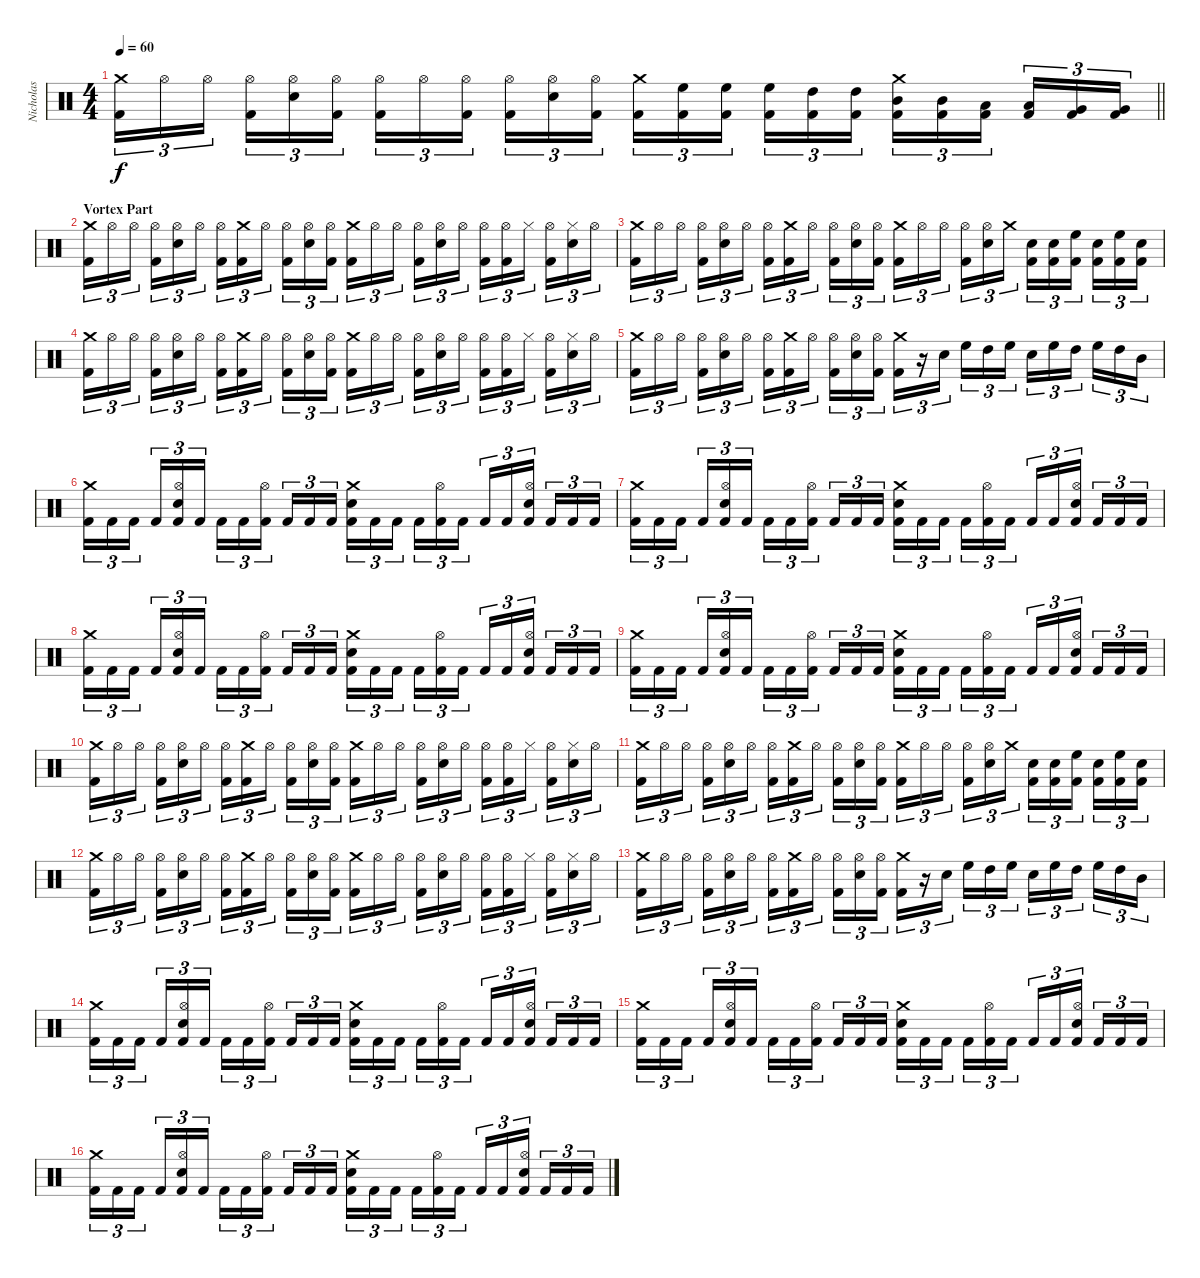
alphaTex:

\track ("Nicholas" "Nicholas") {instrument percussion}
\staff {score}
\articulation defaults
\ts (4 4)
\tempo 60
\clef neutral
\barLineRight lightlight
\ks c
("Crash medium (hit)" "Kick (hit) 2").16{tu (3 2) dy f} "Hi-Hat (open)".16{tu (3 2)} "Hi-Hat (open)".16{tu (3 2) beam splitsecondary} ("Hi-Hat (open)" "Kick (hit) 2").16{tu (3 2)} ("Hi-Hat (open)" "Snare (hit) 2").16{tu (3 2)} ("Hi-Hat (open)" "Kick (hit) 2").16{tu (3 2)} ("Hi-Hat (open)" "Kick (hit) 2").16{tu (3 2)} "Hi-Hat (open)".16{tu (3 2)} ("Hi-Hat (open)" "Kick (hit) 2").16{tu (3 2) beam splitsecondary} ("Hi-Hat (open)" "Kick (hit) 2").16{tu (3 2)} ("Hi-Hat (open)" "Snare (hit) 2").16{tu (3 2)} ("Hi-Hat (open)" "Kick (hit) 2").16{tu (3 2)} ("Crash medium (hit)" "Kick (hit) 2").16{tu (3 2)} ("High Floor Tom (hit)" "Kick (hit) 2").16{tu (3 2)} ("High Floor Tom (hit)" "Kick (hit) 2").16{tu (3 2) beam splitsecondary} ("High Floor Tom (hit)" "Kick (hit) 2").16{tu (3 2)} ("High Tom (hit)" "Kick (hit) 2").16{tu (3 2)} ("High Tom (hit)" "Kick (hit) 2").16{tu (3 2)} ("Crash medium (hit)" "Mid Tom (hit)" "Kick (hit) 2").16{tu (3 2)} ("Mid Tom (hit)" "Kick (hit) 2").16{tu (3 2)} ("Low Tom (hit)" "Kick (hit) 2").16{tu (3 2) beam splitsecondary} ("Low Tom (hit)" "Kick (hit) 2").16{tu (3 2)} ("Very Low Tom (hit)" "Kick (hit) 2").16{tu (3 2)} ("Very Low Tom (hit)" "Kick (hit) 2").16{tu (3 2)} |
\section ("" "Vortex Part")
("Crash medium (hit)" "Kick (hit) 2").16{tu (3 2)} "Hi-Hat (open)".16{tu (3 2)} "Hi-Hat (open)".16{tu (3 2) beam splitsecondary} ("Hi-Hat (open)" "Kick (hit) 2").16{tu (3 2)} ("Hi-Hat (open)" "Snare (hit) 2").16{tu (3 2)} "Hi-Hat (open)".16{tu (3 2)} ("Hi-Hat (open)" "Kick (hit) 2").16{tu (3 2)} ("Crash medium (hit)" "Kick (hit) 2").16{tu (3 2)} "Hi-Hat (open)".16{tu (3 2) beam splitsecondary} ("Hi-Hat (open)" "Kick (hit) 2").16{tu (3 2)} ("Hi-Hat (open)" "Snare (hit) 2").16{tu (3 2)} ("Hi-Hat (open)" "Kick (hit) 2").16{tu (3 2)} ("Crash medium (hit)" "Kick (hit) 2").16{tu (3 2)} "Hi-Hat (open)".16{tu (3 2)} "Hi-Hat (open)".16{tu (3 2) beam splitsecondary} ("Hi-Hat (open)" "Kick (hit) 2").16{tu (3 2)} ("Hi-Hat (open)" "Snare (hit) 2").16{tu (3 2)} "Hi-Hat (open)".16{tu (3 2)} ("Hi-Hat (open)" "Kick (hit) 2").16{tu (3 2)} ("Hi-Hat (open)" "Kick (hit) 2").16{tu (3 2)} "Hi-Hat (closed)".16{tu (3 2) beam splitsecondary} ("Hi-Hat (open)" "Kick (hit) 2").16{tu (3 2)} ("Hi-Hat (closed)" "Snare (hit) 2").16{tu (3 2)} "Hi-Hat (open)".16{tu (3 2)} |
("Crash medium (hit)" "Kick (hit) 2").16{tu (3 2)} "Hi-Hat (open)".16{tu (3 2)} "Hi-Hat (open)".16{tu (3 2) beam splitsecondary} ("Hi-Hat (open)" "Kick (hit) 2").16{tu (3 2)} ("Hi-Hat (open)" "Snare (hit) 2").16{tu (3 2)} "Hi-Hat (open)".16{tu (3 2)} ("Hi-Hat (open)" "Kick (hit) 2").16{tu (3 2)} ("Crash medium (hit)" "Kick (hit) 2").16{tu (3 2)} "Hi-Hat (open)".16{tu (3 2) beam splitsecondary} ("Hi-Hat (open)" "Kick (hit) 2").16{tu (3 2)} ("Hi-Hat (open)" "Snare (hit) 2").16{tu (3 2)} ("Hi-Hat (open)" "Kick (hit) 2").16{tu (3 2)} ("Crash medium (hit)" "Kick (hit) 2").16{tu (3 2)} "Hi-Hat (open)".16{tu (3 2)} "Hi-Hat (open)".16{tu (3 2) beam splitsecondary} ("Hi-Hat (open)" "Kick (hit) 2").16{tu (3 2)} ("Hi-Hat (open)" "Snare (hit) 2").16{tu (3 2)} "Crash medium (hit)".16{tu (3 2)} ("Snare (hit) 2" "Kick (hit) 2").16{tu (3 2)} ("Snare (hit) 2" "Kick (hit) 2").16{tu (3 2)} ("High Floor Tom (hit)" "Kick (hit) 2").16{tu (3 2) beam splitsecondary} ("Snare (hit) 2" "Kick (hit) 2").16{tu (3 2)} ("High Floor Tom (hit)" "Kick (hit) 2").16{tu (3 2)} ("Snare (hit) 2" "Kick (hit) 2").16{tu (3 2)} |
("Crash medium (hit)" "Kick (hit) 2").16{tu (3 2)} "Hi-Hat (open)".16{tu (3 2)} "Hi-Hat (open)".16{tu (3 2) beam splitsecondary} ("Hi-Hat (open)" "Kick (hit) 2").16{tu (3 2)} ("Hi-Hat (open)" "Snare (hit) 2").16{tu (3 2)} "Hi-Hat (open)".16{tu (3 2)} ("Hi-Hat (open)" "Kick (hit) 2").16{tu (3 2)} ("Crash medium (hit)" "Kick (hit) 2").16{tu (3 2)} "Hi-Hat (open)".16{tu (3 2) beam splitsecondary} ("Hi-Hat (open)" "Kick (hit) 2").16{tu (3 2)} ("Hi-Hat (open)" "Snare (hit) 2").16{tu (3 2)} ("Hi-Hat (open)" "Kick (hit) 2").16{tu (3 2)} ("Crash medium (hit)" "Kick (hit) 2").16{tu (3 2)} "Hi-Hat (open)".16{tu (3 2)} "Hi-Hat (open)".16{tu (3 2) beam splitsecondary} ("Hi-Hat (open)" "Kick (hit) 2").16{tu (3 2)} ("Hi-Hat (open)" "Snare (hit) 2").16{tu (3 2)} "Hi-Hat (open)".16{tu (3 2)} ("Hi-Hat (open)" "Kick (hit) 2").16{tu (3 2)} ("Hi-Hat (open)" "Kick (hit) 2").16{tu (3 2)} "Hi-Hat (closed)".16{tu (3 2) beam splitsecondary} ("Hi-Hat (open)" "Kick (hit) 2").16{tu (3 2)} ("Hi-Hat (closed)" "Snare (hit) 2").16{tu (3 2)} "Hi-Hat (open)".16{tu (3 2)} |
("Crash medium (hit)" "Kick (hit) 2").16{tu (3 2)} "Hi-Hat (open)".16{tu (3 2)} "Hi-Hat (open)".16{tu (3 2) beam splitsecondary} ("Hi-Hat (open)" "Kick (hit) 2").16{tu (3 2)} ("Hi-Hat (open)" "Snare (hit) 2").16{tu (3 2)} "Hi-Hat (open)".16{tu (3 2)} ("Hi-Hat (open)" "Kick (hit) 2").16{tu (3 2)} ("Crash medium (hit)" "Kick (hit) 2").16{tu (3 2)} "Hi-Hat (open)".16{tu (3 2) beam splitsecondary} ("Hi-Hat (open)" "Kick (hit) 2").16{tu (3 2)} ("Hi-Hat (open)" "Snare (hit) 2").16{tu (3 2)} ("Hi-Hat (open)" "Kick (hit) 2").16{tu (3 2)} ("Crash medium (hit)" "Kick (hit) 2").16{tu (3 2)} r.16{tu (3 2)} "Snare (hit) 2".16{tu (3 2) beam splitsecondary} "High Floor Tom (hit)".16{tu (3 2)} "High Tom (hit)".16{tu (3 2)} "High Floor Tom (hit)".16{tu (3 2)} "Snare (hit) 2".16{tu (3 2)} "High Floor Tom (hit)".16{tu (3 2)} "High Tom (hit)".16{tu (3 2) beam splitsecondary} "High Floor Tom (hit)".16{tu (3 2)} "High Tom (hit)".16{tu (3 2)} "Mid Tom (hit)".16{tu (3 2)} |
("Crash medium (hit)" "Kick (hit) 2").16{tu (3 2)} "Kick (hit) 2".16{tu (3 2)} "Kick (hit) 2".16{tu (3 2) beam splitsecondary} "Kick (hit) 2".16{tu (3 2)} ("Hi-Hat (open)" "Snare (hit) 2" "Kick (hit) 2").16{tu (3 2)} "Kick (hit) 2".16{tu (3 2)} "Kick (hit) 2".16{tu (3 2)} "Kick (hit) 2".16{tu (3 2)} ("Hi-Hat (open)" "Kick (hit) 2").16{tu (3 2) beam splitsecondary} "Kick (hit) 2".16{tu (3 2)} "Kick (hit) 2".16{tu (3 2)} "Kick (hit) 2".16{tu (3 2)} ("Crash medium (hit)" "Snare (hit) 2" "Kick (hit) 2").16{tu (3 2)} "Kick (hit) 2".16{tu (3 2)} "Kick (hit) 2".16{tu (3 2) beam splitsecondary} "Kick (hit) 2".16{tu (3 2)} ("Hi-Hat (open)" "Kick (hit) 2").16{tu (3 2)} "Kick (hit) 2".16{tu (3 2)} "Kick (hit) 2".16{tu (3 2)} "Kick (hit) 2".16{tu (3 2)} ("Hi-Hat (open)" "Snare (hit) 2" "Kick (hit) 2").16{tu (3 2) beam splitsecondary} "Kick (hit) 2".16{tu (3 2)} "Kick (hit) 2".16{tu (3 2)} "Kick (hit) 2".16{tu (3 2)} |
("Crash medium (hit)" "Kick (hit) 2").16{tu (3 2)} "Kick (hit) 2".16{tu (3 2)} "Kick (hit) 2".16{tu (3 2) beam splitsecondary} "Kick (hit) 2".16{tu (3 2)} ("Hi-Hat (open)" "Snare (hit) 2" "Kick (hit) 2").16{tu (3 2)} "Kick (hit) 2".16{tu (3 2)} "Kick (hit) 2".16{tu (3 2)} "Kick (hit) 2".16{tu (3 2)} ("Hi-Hat (open)" "Kick (hit) 2").16{tu (3 2) beam splitsecondary} "Kick (hit) 2".16{tu (3 2)} "Kick (hit) 2".16{tu (3 2)} "Kick (hit) 2".16{tu (3 2)} ("Crash medium (hit)" "Snare (hit) 2" "Kick (hit) 2").16{tu (3 2)} "Kick (hit) 2".16{tu (3 2)} "Kick (hit) 2".16{tu (3 2) beam splitsecondary} "Kick (hit) 2".16{tu (3 2)} ("Hi-Hat (open)" "Kick (hit) 2").16{tu (3 2)} "Kick (hit) 2".16{tu (3 2)} "Kick (hit) 2".16{tu (3 2)} "Kick (hit) 2".16{tu (3 2)} ("Hi-Hat (open)" "Snare (hit) 2" "Kick (hit) 2").16{tu (3 2) beam splitsecondary} "Kick (hit) 2".16{tu (3 2)} "Kick (hit) 2".16{tu (3 2)} "Kick (hit) 2".16{tu (3 2)} |
("Crash medium (hit)" "Kick (hit) 2").16{tu (3 2)} "Kick (hit) 2".16{tu (3 2)} "Kick (hit) 2".16{tu (3 2) beam splitsecondary} "Kick (hit) 2".16{tu (3 2)} ("Hi-Hat (open)" "Snare (hit) 2" "Kick (hit) 2").16{tu (3 2)} "Kick (hit) 2".16{tu (3 2)} "Kick (hit) 2".16{tu (3 2)} "Kick (hit) 2".16{tu (3 2)} ("Hi-Hat (open)" "Kick (hit) 2").16{tu (3 2) beam splitsecondary} "Kick (hit) 2".16{tu (3 2)} "Kick (hit) 2".16{tu (3 2)} "Kick (hit) 2".16{tu (3 2)} ("Crash medium (hit)" "Snare (hit) 2" "Kick (hit) 2").16{tu (3 2)} "Kick (hit) 2".16{tu (3 2)} "Kick (hit) 2".16{tu (3 2) beam splitsecondary} "Kick (hit) 2".16{tu (3 2)} ("Hi-Hat (open)" "Kick (hit) 2").16{tu (3 2)} "Kick (hit) 2".16{tu (3 2)} "Kick (hit) 2".16{tu (3 2)} "Kick (hit) 2".16{tu (3 2)} ("Hi-Hat (open)" "Snare (hit) 2" "Kick (hit) 2").16{tu (3 2) beam splitsecondary} "Kick (hit) 2".16{tu (3 2)} "Kick (hit) 2".16{tu (3 2)} "Kick (hit) 2".16{tu (3 2)} |
("Crash medium (hit)" "Kick (hit) 2").16{tu (3 2)} "Kick (hit) 2".16{tu (3 2)} "Kick (hit) 2".16{tu (3 2) beam splitsecondary} "Kick (hit) 2".16{tu (3 2)} ("Hi-Hat (open)" "Snare (hit) 2" "Kick (hit) 2").16{tu (3 2)} "Kick (hit) 2".16{tu (3 2)} "Kick (hit) 2".16{tu (3 2)} "Kick (hit) 2".16{tu (3 2)} ("Hi-Hat (open)" "Kick (hit) 2").16{tu (3 2) beam splitsecondary} "Kick (hit) 2".16{tu (3 2)} "Kick (hit) 2".16{tu (3 2)} "Kick (hit) 2".16{tu (3 2)} ("Crash medium (hit)" "Snare (hit) 2" "Kick (hit) 2").16{tu (3 2)} "Kick (hit) 2".16{tu (3 2)} "Kick (hit) 2".16{tu (3 2) beam splitsecondary} "Kick (hit) 2".16{tu (3 2)} ("Hi-Hat (open)" "Kick (hit) 2").16{tu (3 2)} "Kick (hit) 2".16{tu (3 2)} "Kick (hit) 2".16{tu (3 2)} "Kick (hit) 2".16{tu (3 2)} ("Hi-Hat (open)" "Snare (hit) 2" "Kick (hit) 2").16{tu (3 2) beam splitsecondary} "Kick (hit) 2".16{tu (3 2)} "Kick (hit) 2".16{tu (3 2)} "Kick (hit) 2".16{tu (3 2)} |
("Crash medium (hit)" "Kick (hit) 2").16{tu (3 2)} "Hi-Hat (open)".16{tu (3 2)} "Hi-Hat (open)".16{tu (3 2) beam splitsecondary} ("Hi-Hat (open)" "Kick (hit) 2").16{tu (3 2)} ("Hi-Hat (open)" "Snare (hit) 2").16{tu (3 2)} "Hi-Hat (open)".16{tu (3 2)} ("Hi-Hat (open)" "Kick (hit) 2").16{tu (3 2)} ("Crash medium (hit)" "Kick (hit) 2").16{tu (3 2)} "Hi-Hat (open)".16{tu (3 2) beam splitsecondary} ("Hi-Hat (open)" "Kick (hit) 2").16{tu (3 2)} ("Hi-Hat (open)" "Snare (hit) 2").16{tu (3 2)} ("Hi-Hat (open)" "Kick (hit) 2").16{tu (3 2)} ("Crash medium (hit)" "Kick (hit) 2").16{tu (3 2)} "Hi-Hat (open)".16{tu (3 2)} "Hi-Hat (open)".16{tu (3 2) beam splitsecondary} ("Hi-Hat (open)" "Kick (hit) 2").16{tu (3 2)} ("Hi-Hat (open)" "Snare (hit) 2").16{tu (3 2)} "Hi-Hat (open)".16{tu (3 2)} ("Hi-Hat (open)" "Kick (hit) 2").16{tu (3 2)} ("Hi-Hat (open)" "Kick (hit) 2").16{tu (3 2)} "Hi-Hat (closed)".16{tu (3 2) beam splitsecondary} ("Hi-Hat (open)" "Kick (hit) 2").16{tu (3 2)} ("Hi-Hat (closed)" "Snare (hit) 2").16{tu (3 2)} "Hi-Hat (open)".16{tu (3 2)} |
("Crash medium (hit)" "Kick (hit) 2").16{tu (3 2)} "Hi-Hat (open)".16{tu (3 2)} "Hi-Hat (open)".16{tu (3 2) beam splitsecondary} ("Hi-Hat (open)" "Kick (hit) 2").16{tu (3 2)} ("Hi-Hat (open)" "Snare (hit) 2").16{tu (3 2)} "Hi-Hat (open)".16{tu (3 2)} ("Hi-Hat (open)" "Kick (hit) 2").16{tu (3 2)} ("Crash medium (hit)" "Kick (hit) 2").16{tu (3 2)} "Hi-Hat (open)".16{tu (3 2) beam splitsecondary} ("Hi-Hat (open)" "Kick (hit) 2").16{tu (3 2)} ("Hi-Hat (open)" "Snare (hit) 2").16{tu (3 2)} ("Hi-Hat (open)" "Kick (hit) 2").16{tu (3 2)} ("Crash medium (hit)" "Kick (hit) 2").16{tu (3 2)} "Hi-Hat (open)".16{tu (3 2)} "Hi-Hat (open)".16{tu (3 2) beam splitsecondary} ("Hi-Hat (open)" "Kick (hit) 2").16{tu (3 2)} ("Hi-Hat (open)" "Snare (hit) 2").16{tu (3 2)} "Crash medium (hit)".16{tu (3 2)} ("Snare (hit) 2" "Kick (hit) 2").16{tu (3 2)} ("Snare (hit) 2" "Kick (hit) 2").16{tu (3 2)} ("High Floor Tom (hit)" "Kick (hit) 2").16{tu (3 2) beam splitsecondary} ("Snare (hit) 2" "Kick (hit) 2").16{tu (3 2)} ("High Floor Tom (hit)" "Kick (hit) 2").16{tu (3 2)} ("Snare (hit) 2" "Kick (hit) 2").16{tu (3 2)} |
("Crash medium (hit)" "Kick (hit) 2").16{tu (3 2)} "Hi-Hat (open)".16{tu (3 2)} "Hi-Hat (open)".16{tu (3 2) beam splitsecondary} ("Hi-Hat (open)" "Kick (hit) 2").16{tu (3 2)} ("Hi-Hat (open)" "Snare (hit) 2").16{tu (3 2)} "Hi-Hat (open)".16{tu (3 2)} ("Hi-Hat (open)" "Kick (hit) 2").16{tu (3 2)} ("Crash medium (hit)" "Kick (hit) 2").16{tu (3 2)} "Hi-Hat (open)".16{tu (3 2) beam splitsecondary} ("Hi-Hat (open)" "Kick (hit) 2").16{tu (3 2)} ("Hi-Hat (open)" "Snare (hit) 2").16{tu (3 2)} ("Hi-Hat (open)" "Kick (hit) 2").16{tu (3 2)} ("Crash medium (hit)" "Kick (hit) 2").16{tu (3 2)} "Hi-Hat (open)".16{tu (3 2)} "Hi-Hat (open)".16{tu (3 2) beam splitsecondary} ("Hi-Hat (open)" "Kick (hit) 2").16{tu (3 2)} ("Hi-Hat (open)" "Snare (hit) 2").16{tu (3 2)} "Hi-Hat (open)".16{tu (3 2)} ("Hi-Hat (open)" "Kick (hit) 2").16{tu (3 2)} ("Hi-Hat (open)" "Kick (hit) 2").16{tu (3 2)} "Hi-Hat (closed)".16{tu (3 2) beam splitsecondary} ("Hi-Hat (open)" "Kick (hit) 2").16{tu (3 2)} ("Hi-Hat (closed)" "Snare (hit) 2").16{tu (3 2)} "Hi-Hat (open)".16{tu (3 2)} |
("Crash medium (hit)" "Kick (hit) 2").16{tu (3 2)} "Hi-Hat (open)".16{tu (3 2)} "Hi-Hat (open)".16{tu (3 2) beam splitsecondary} ("Hi-Hat (open)" "Kick (hit) 2").16{tu (3 2)} ("Hi-Hat (open)" "Snare (hit) 2").16{tu (3 2)} "Hi-Hat (open)".16{tu (3 2)} ("Hi-Hat (open)" "Kick (hit) 2").16{tu (3 2)} ("Crash medium (hit)" "Kick (hit) 2").16{tu (3 2)} "Hi-Hat (open)".16{tu (3 2) beam splitsecondary} ("Hi-Hat (open)" "Kick (hit) 2").16{tu (3 2)} ("Hi-Hat (open)" "Snare (hit) 2").16{tu (3 2)} ("Hi-Hat (open)" "Kick (hit) 2").16{tu (3 2)} ("Crash medium (hit)" "Kick (hit) 2").16{tu (3 2)} r.16{tu (3 2)} "Snare (hit) 2".16{tu (3 2) beam splitsecondary} "High Floor Tom (hit)".16{tu (3 2)} "High Tom (hit)".16{tu (3 2)} "High Floor Tom (hit)".16{tu (3 2)} "Snare (hit) 2".16{tu (3 2)} "High Floor Tom (hit)".16{tu (3 2)} "High Tom (hit)".16{tu (3 2) beam splitsecondary} "High Floor Tom (hit)".16{tu (3 2)} "High Tom (hit)".16{tu (3 2)} "Mid Tom (hit)".16{tu (3 2)} |
("Crash medium (hit)" "Kick (hit) 2").16{tu (3 2)} "Kick (hit) 2".16{tu (3 2)} "Kick (hit) 2".16{tu (3 2) beam splitsecondary} "Kick (hit) 2".16{tu (3 2)} ("Hi-Hat (open)" "Snare (hit) 2" "Kick (hit) 2").16{tu (3 2)} "Kick (hit) 2".16{tu (3 2)} "Kick (hit) 2".16{tu (3 2)} "Kick (hit) 2".16{tu (3 2)} ("Hi-Hat (open)" "Kick (hit) 2").16{tu (3 2) beam splitsecondary} "Kick (hit) 2".16{tu (3 2)} "Kick (hit) 2".16{tu (3 2)} "Kick (hit) 2".16{tu (3 2)} ("Crash medium (hit)" "Snare (hit) 2" "Kick (hit) 2").16{tu (3 2)} "Kick (hit) 2".16{tu (3 2)} "Kick (hit) 2".16{tu (3 2) beam splitsecondary} "Kick (hit) 2".16{tu (3 2)} ("Hi-Hat (open)" "Kick (hit) 2").16{tu (3 2)} "Kick (hit) 2".16{tu (3 2)} "Kick (hit) 2".16{tu (3 2)} "Kick (hit) 2".16{tu (3 2)} ("Hi-Hat (open)" "Snare (hit) 2" "Kick (hit) 2").16{tu (3 2) beam splitsecondary} "Kick (hit) 2".16{tu (3 2)} "Kick (hit) 2".16{tu (3 2)} "Kick (hit) 2".16{tu (3 2)} |
("Crash medium (hit)" "Kick (hit) 2").16{tu (3 2)} "Kick (hit) 2".16{tu (3 2)} "Kick (hit) 2".16{tu (3 2) beam splitsecondary} "Kick (hit) 2".16{tu (3 2)} ("Hi-Hat (open)" "Snare (hit) 2" "Kick (hit) 2").16{tu (3 2)} "Kick (hit) 2".16{tu (3 2)} "Kick (hit) 2".16{tu (3 2)} "Kick (hit) 2".16{tu (3 2)} ("Hi-Hat (open)" "Kick (hit) 2").16{tu (3 2) beam splitsecondary} "Kick (hit) 2".16{tu (3 2)} "Kick (hit) 2".16{tu (3 2)} "Kick (hit) 2".16{tu (3 2)} ("Crash medium (hit)" "Snare (hit) 2" "Kick (hit) 2").16{tu (3 2)} "Kick (hit) 2".16{tu (3 2)} "Kick (hit) 2".16{tu (3 2) beam splitsecondary} "Kick (hit) 2".16{tu (3 2)} ("Hi-Hat (open)" "Kick (hit) 2").16{tu (3 2)} "Kick (hit) 2".16{tu (3 2)} "Kick (hit) 2".16{tu (3 2)} "Kick (hit) 2".16{tu (3 2)} ("Hi-Hat (open)" "Snare (hit) 2" "Kick (hit) 2").16{tu (3 2) beam splitsecondary} "Kick (hit) 2".16{tu (3 2)} "Kick (hit) 2".16{tu (3 2)} "Kick (hit) 2".16{tu (3 2)} |
("Crash medium (hit)" "Kick (hit) 2").16{tu (3 2)} "Kick (hit) 2".16{tu (3 2)} "Kick (hit) 2".16{tu (3 2) beam splitsecondary} "Kick (hit) 2".16{tu (3 2)} ("Hi-Hat (open)" "Snare (hit) 2" "Kick (hit) 2").16{tu (3 2)} "Kick (hit) 2".16{tu (3 2)} "Kick (hit) 2".16{tu (3 2)} "Kick (hit) 2".16{tu (3 2)} ("Hi-Hat (open)" "Kick (hit) 2").16{tu (3 2) beam splitsecondary} "Kick (hit) 2".16{tu (3 2)} "Kick (hit) 2".16{tu (3 2)} "Kick (hit) 2".16{tu (3 2)} ("Crash medium (hit)" "Snare (hit) 2" "Kick (hit) 2").16{tu (3 2)} "Kick (hit) 2".16{tu (3 2)} "Kick (hit) 2".16{tu (3 2) beam splitsecondary} "Kick (hit) 2".16{tu (3 2)} ("Hi-Hat (open)" "Kick (hit) 2").16{tu (3 2)} "Kick (hit) 2".16{tu (3 2)} "Kick (hit) 2".16{tu (3 2)} "Kick (hit) 2".16{tu (3 2)} ("Hi-Hat (open)" "Snare (hit) 2" "Kick (hit) 2").16{tu (3 2) beam splitsecondary} "Kick (hit) 2".16{tu (3 2)} "Kick (hit) 2".16{tu (3 2)} "Kick (hit) 2".16{tu (3 2)}
